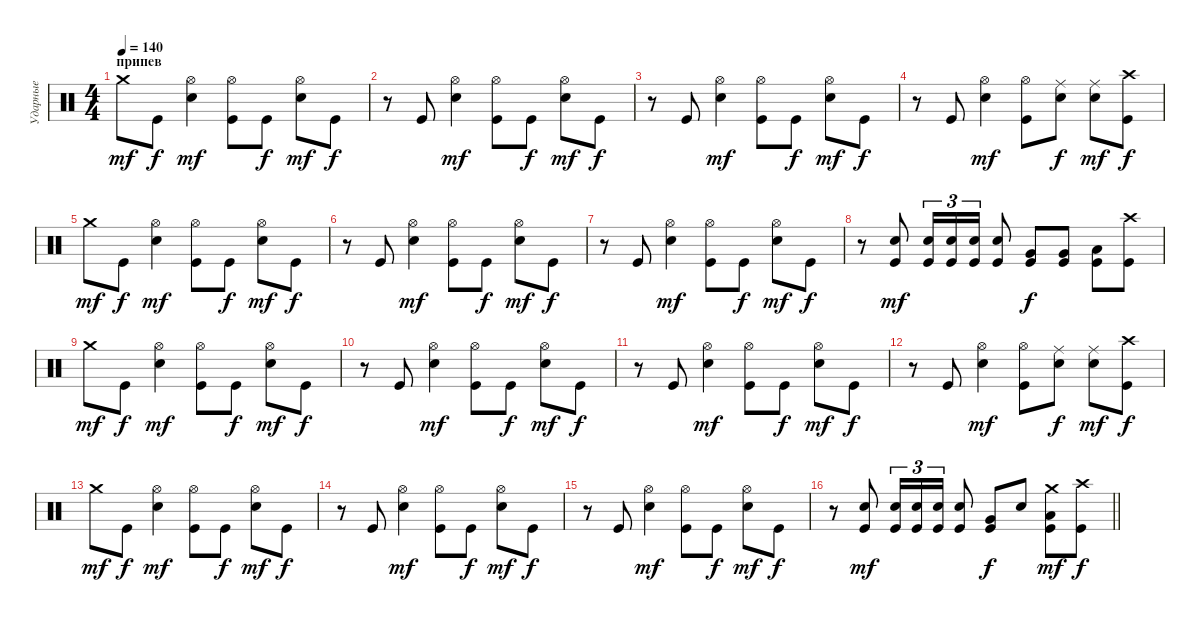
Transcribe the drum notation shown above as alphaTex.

\track ("Ударные" "Ударные") {instrument percussion}
\staff {score}
\articulation defaults
\ts (4 4)
\section ("" "припев")
\tempo 140
\clef neutral
\ks c "Crash medium (hit)".8{dy mf} "Kick (hit)".8{dy f}
("Electric Snare (hit)" "Hi-Hat (open)").4{dy mf} ("Kick (hit)" "Hi-Hat (open)").8 "Kick (hit)".8{dy f} ("Electric Snare (hit)" "Hi-Hat (open)").8{dy mf} "Kick (hit)".8{dy f} |
r.8 "Kick (hit)".8 ("Electric Snare (hit)" "Hi-Hat (open)").4{dy mf} ("Kick (hit)" "Hi-Hat (open)").8 "Kick (hit)".8{dy f} ("Electric Snare (hit)" "Hi-Hat (open)").8{dy mf} "Kick (hit)".8{dy f} |
r.8 "Kick (hit)".8 ("Electric Snare (hit)" "Hi-Hat (open)").4{dy mf} ("Kick (hit)" "Hi-Hat (open)").8 "Kick (hit)".8{dy f} ("Electric Snare (hit)" "Hi-Hat (open)").8{dy mf} "Kick (hit)".8{dy f} |
r.8 "Kick (hit)".8 ("Electric Snare (hit)" "Hi-Hat (open)").4{dy mf} ("Kick (hit)" "Hi-Hat (open)").8 ("Electric Snare (hit)" "Ride (middle)").8{dy f} ("Electric Snare (hit)" "Ride (middle)").8{dy mf} ("Kick (hit)" "Crash high (hit)").8{dy f} |
"Crash medium (hit)".8{dy mf} "Kick (hit)".8{dy f} ("Electric Snare (hit)" "Hi-Hat (open)").4{dy mf} ("Kick (hit)" "Hi-Hat (open)").8 "Kick (hit)".8{dy f} ("Electric Snare (hit)" "Hi-Hat (open)").8{dy mf} "Kick (hit)".8{dy f} |
r.8 "Kick (hit)".8 ("Electric Snare (hit)" "Hi-Hat (open)").4{dy mf} ("Kick (hit)" "Hi-Hat (open)").8 "Kick (hit)".8{dy f} ("Electric Snare (hit)" "Hi-Hat (open)").8{dy mf} "Kick (hit)".8{dy f} |
r.8 "Kick (hit)".8 ("Electric Snare (hit)" "Hi-Hat (open)").4{dy mf} ("Kick (hit)" "Hi-Hat (open)").8 "Kick (hit)".8{dy f} ("Electric Snare (hit)" "Hi-Hat (open)").8{dy mf} "Kick (hit)".8{dy f} |
r.8 ("Kick (hit)" "Electric Snare (hit)").8{dy mf} ("Kick (hit)" "Electric Snare (hit)").16{tu (3 2)} ("Kick (hit)" "Electric Snare (hit)").16{tu (3 2)} ("Kick (hit)" "Electric Snare (hit)").16{tu (3 2)} ("Kick (hit)" "Electric Snare (hit)").8 ("Kick (hit)" "Very Low Tom (hit)").8{dy f} ("Kick (hit)" "Very Low Tom (hit)").8 ("Kick (hit)" "Low Floor Tom (hit)").8 ("Kick (hit)" "Crash high (hit)").8 |
"Crash medium (hit)".8{dy mf} "Kick (hit)".8{dy f} ("Electric Snare (hit)" "Hi-Hat (open)").4{dy mf} ("Kick (hit)" "Hi-Hat (open)").8 "Kick (hit)".8{dy f} ("Electric Snare (hit)" "Hi-Hat (open)").8{dy mf} "Kick (hit)".8{dy f} |
r.8 "Kick (hit)".8 ("Electric Snare (hit)" "Hi-Hat (open)").4{dy mf} ("Kick (hit)" "Hi-Hat (open)").8 "Kick (hit)".8{dy f} ("Electric Snare (hit)" "Hi-Hat (open)").8{dy mf} "Kick (hit)".8{dy f} |
r.8 "Kick (hit)".8 ("Electric Snare (hit)" "Hi-Hat (open)").4{dy mf} ("Kick (hit)" "Hi-Hat (open)").8 "Kick (hit)".8{dy f} ("Electric Snare (hit)" "Hi-Hat (open)").8{dy mf} "Kick (hit)".8{dy f} |
r.8 "Kick (hit)".8 ("Electric Snare (hit)" "Hi-Hat (open)").4{dy mf} ("Kick (hit)" "Hi-Hat (open)").8 ("Electric Snare (hit)" "Ride (middle)").8{dy f} ("Electric Snare (hit)" "Ride (middle)").8{dy mf} ("Kick (hit)" "Crash high (hit)").8{dy f} |
"Crash medium (hit)".8{dy mf} "Kick (hit)".8{dy f} ("Electric Snare (hit)" "Hi-Hat (open)").4{dy mf} ("Kick (hit)" "Hi-Hat (open)").8 "Kick (hit)".8{dy f} ("Electric Snare (hit)" "Hi-Hat (open)").8{dy mf} "Kick (hit)".8{dy f} |
r.8 "Kick (hit)".8 ("Electric Snare (hit)" "Hi-Hat (open)").4{dy mf} ("Kick (hit)" "Hi-Hat (open)").8 "Kick (hit)".8{dy f} ("Electric Snare (hit)" "Hi-Hat (open)").8{dy mf} "Kick (hit)".8{dy f} |
r.8 "Kick (hit)".8 ("Electric Snare (hit)" "Hi-Hat (open)").4{dy mf} ("Kick (hit)" "Hi-Hat (open)").8 "Kick (hit)".8{dy f} ("Electric Snare (hit)" "Hi-Hat (open)").8{dy mf} "Kick (hit)".8{dy f} |
\barLineRight lightlight
r.8 ("Kick (hit)" "Electric Snare (hit)").8{dy mf} ("Kick (hit)" "Electric Snare (hit)").16{tu (3 2)} ("Kick (hit)" "Electric Snare (hit)").16{tu (3 2)} ("Kick (hit)" "Electric Snare (hit)").16{tu (3 2)} ("Kick (hit)" "Electric Snare (hit)").8 ("Kick (hit)" "Very Low Tom (hit)").8{dy f} "Electric Snare (hit)".8 ("Kick (hit)" "Low Floor Tom (hit)" "Crash medium (hit)").8{dy mf} ("Kick (hit)" "Crash high (hit)").8{dy f}
